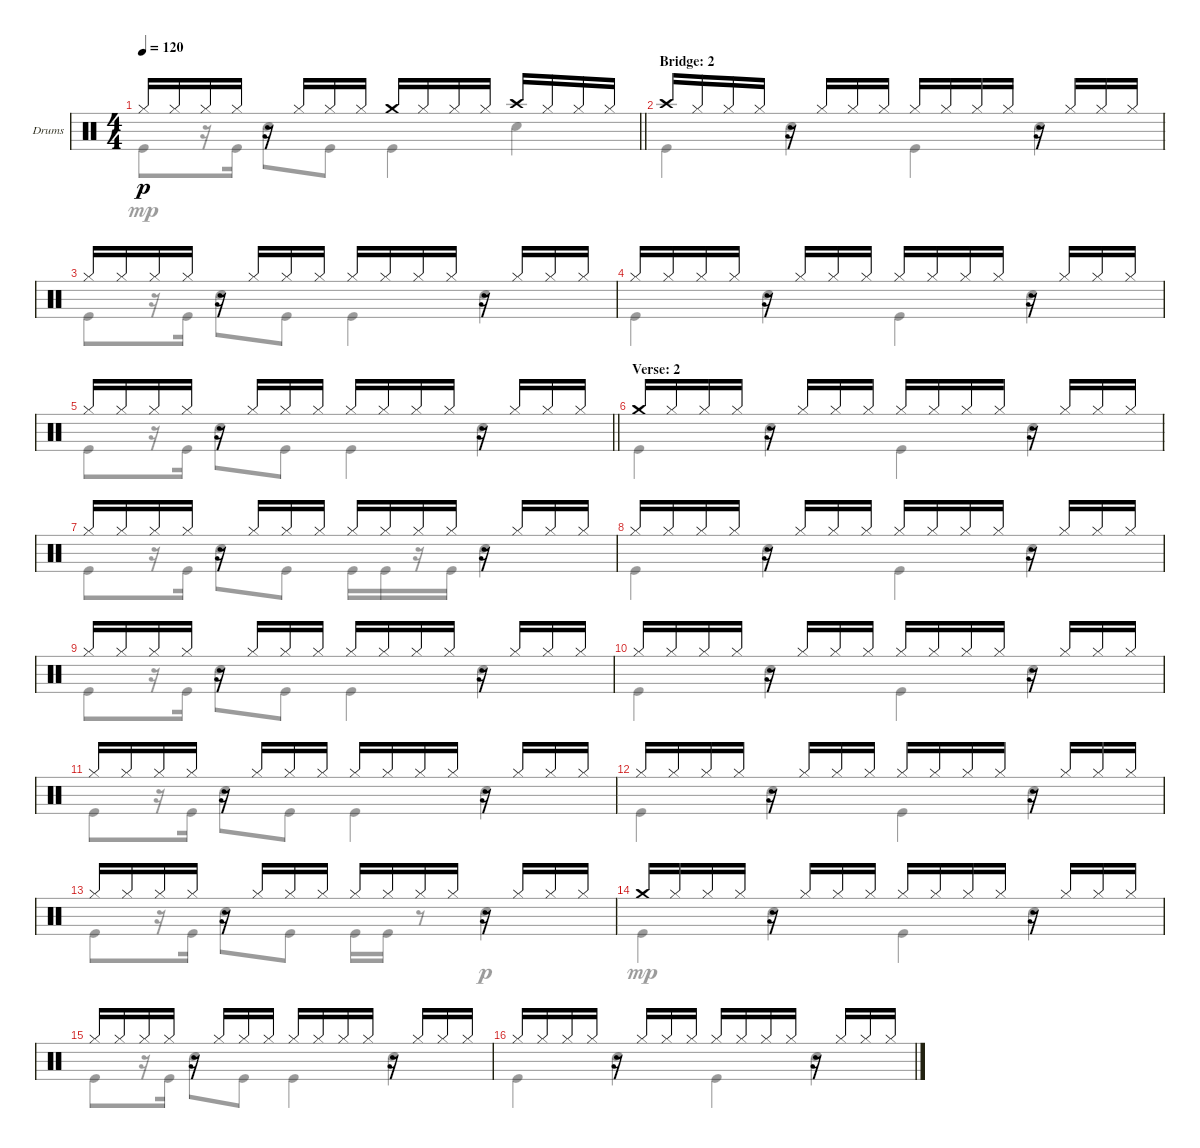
\bracketExtendMode groupsimilarinstruments
\firstSystemTrackNameOrientation horizontal
\otherSystemsTrackNameOrientation horizontal
\track ("Drumkit" "Drums") {instrument percussion}
\staff {score}
\articulation defaults
\voice
\ts (4 4)
\tempo 120
\clef neutral
\barLineRight lightlight
\ks c "Hi-Hat (closed)".16{dy p} "Hi-Hat (closed)".16 "Hi-Hat (closed)".16 "Hi-Hat (closed)".16
r.16 "Hi-Hat (closed)".16 "Hi-Hat (closed)".16 "Hi-Hat (closed)".16 "Crash medium (hit)".16 "Hi-Hat (closed)".16 "Hi-Hat (closed)".16 "Hi-Hat (closed)".16 "Crash high (hit)".16 "Hi-Hat (closed)".16 "Hi-Hat (closed)".16 "Hi-Hat (closed)".16 |
\section ("" "Bridge: 2")
"Crash high (hit)".16 "Hi-Hat (closed)".16 "Hi-Hat (closed)".16 "Hi-Hat (closed)".16 r.16 "Hi-Hat (closed)".16 "Hi-Hat (closed)".16 "Hi-Hat (closed)".16 "Hi-Hat (closed)".16 "Hi-Hat (closed)".16 "Hi-Hat (closed)".16 "Hi-Hat (closed)".16 r.16 "Hi-Hat (closed)".16 "Hi-Hat (closed)".16 "Hi-Hat (closed)".16 |
"Hi-Hat (closed)".16 "Hi-Hat (closed)".16 "Hi-Hat (closed)".16 "Hi-Hat (closed)".16 r.16 "Hi-Hat (closed)".16 "Hi-Hat (closed)".16 "Hi-Hat (closed)".16 "Hi-Hat (closed)".16 "Hi-Hat (closed)".16 "Hi-Hat (closed)".16 "Hi-Hat (closed)".16 r.16 "Hi-Hat (closed)".16 "Hi-Hat (closed)".16 "Hi-Hat (closed)".16 |
"Hi-Hat (closed)".16 "Hi-Hat (closed)".16 "Hi-Hat (closed)".16 "Hi-Hat (closed)".16 r.16 "Hi-Hat (closed)".16 "Hi-Hat (closed)".16 "Hi-Hat (closed)".16 "Hi-Hat (closed)".16 "Hi-Hat (closed)".16 "Hi-Hat (closed)".16 "Hi-Hat (closed)".16 r.16 "Hi-Hat (closed)".16 "Hi-Hat (closed)".16 "Hi-Hat (closed)".16 |
\barLineRight lightlight "Hi-Hat (closed)".16 "Hi-Hat (closed)".16 "Hi-Hat (closed)".16 "Hi-Hat (closed)".16
r.16 "Hi-Hat (closed)".16 "Hi-Hat (closed)".16 "Hi-Hat (closed)".16 "Hi-Hat (closed)".16 "Hi-Hat (closed)".16 "Hi-Hat (closed)".16 "Hi-Hat (closed)".16 r.16 "Hi-Hat (closed)".16 "Hi-Hat (closed)".16 "Hi-Hat (closed)".16 |
\section ("" "Verse: 2")
"Crash medium (hit)".16 "Hi-Hat (closed)".16 "Hi-Hat (closed)".16 "Hi-Hat (closed)".16 r.16 "Hi-Hat (closed)".16 "Hi-Hat (closed)".16 "Hi-Hat (closed)".16 "Hi-Hat (closed)".16 "Hi-Hat (closed)".16 "Hi-Hat (closed)".16 "Hi-Hat (closed)".16 r.16 "Hi-Hat (closed)".16 "Hi-Hat (closed)".16 "Hi-Hat (closed)".16 |
"Hi-Hat (closed)".16 "Hi-Hat (closed)".16 "Hi-Hat (closed)".16 "Hi-Hat (closed)".16 r.16 "Hi-Hat (closed)".16 "Hi-Hat (closed)".16 "Hi-Hat (closed)".16 "Hi-Hat (closed)".16 "Hi-Hat (closed)".16 "Hi-Hat (closed)".16 "Hi-Hat (closed)".16 r.16 "Hi-Hat (closed)".16 "Hi-Hat (closed)".16 "Hi-Hat (closed)".16 |
"Hi-Hat (closed)".16 "Hi-Hat (closed)".16 "Hi-Hat (closed)".16 "Hi-Hat (closed)".16 r.16 "Hi-Hat (closed)".16 "Hi-Hat (closed)".16 "Hi-Hat (closed)".16 "Hi-Hat (closed)".16 "Hi-Hat (closed)".16 "Hi-Hat (closed)".16 "Hi-Hat (closed)".16 r.16 "Hi-Hat (closed)".16 "Hi-Hat (closed)".16 "Hi-Hat (closed)".16 |
"Hi-Hat (closed)".16 "Hi-Hat (closed)".16 "Hi-Hat (closed)".16 "Hi-Hat (closed)".16 r.16 "Hi-Hat (closed)".16 "Hi-Hat (closed)".16 "Hi-Hat (closed)".16 "Hi-Hat (closed)".16 "Hi-Hat (closed)".16 "Hi-Hat (closed)".16 "Hi-Hat (closed)".16 r.16 "Hi-Hat (closed)".16 "Hi-Hat (closed)".16 "Hi-Hat (closed)".16 |
"Hi-Hat (closed)".16 "Hi-Hat (closed)".16 "Hi-Hat (closed)".16 "Hi-Hat (closed)".16 r.16 "Hi-Hat (closed)".16 "Hi-Hat (closed)".16 "Hi-Hat (closed)".16 "Hi-Hat (closed)".16 "Hi-Hat (closed)".16 "Hi-Hat (closed)".16 "Hi-Hat (closed)".16 r.16 "Hi-Hat (closed)".16 "Hi-Hat (closed)".16 "Hi-Hat (closed)".16 |
"Hi-Hat (closed)".16 "Hi-Hat (closed)".16 "Hi-Hat (closed)".16 "Hi-Hat (closed)".16 r.16 "Hi-Hat (closed)".16 "Hi-Hat (closed)".16 "Hi-Hat (closed)".16 "Hi-Hat (closed)".16 "Hi-Hat (closed)".16 "Hi-Hat (closed)".16 "Hi-Hat (closed)".16 r.16 "Hi-Hat (closed)".16 "Hi-Hat (closed)".16 "Hi-Hat (closed)".16 |
"Hi-Hat (closed)".16 "Hi-Hat (closed)".16 "Hi-Hat (closed)".16 "Hi-Hat (closed)".16 r.16 "Hi-Hat (closed)".16 "Hi-Hat (closed)".16 "Hi-Hat (closed)".16 "Hi-Hat (closed)".16 "Hi-Hat (closed)".16 "Hi-Hat (closed)".16 "Hi-Hat (closed)".16 r.16 "Hi-Hat (closed)".16 "Hi-Hat (closed)".16 "Hi-Hat (closed)".16 |
"Hi-Hat (closed)".16 "Hi-Hat (closed)".16 "Hi-Hat (closed)".16 "Hi-Hat (closed)".16 r.16 "Hi-Hat (closed)".16 "Hi-Hat (closed)".16 "Hi-Hat (closed)".16 "Hi-Hat (closed)".16 "Hi-Hat (closed)".16 "Hi-Hat (closed)".16 "Hi-Hat (closed)".16 r.16 "Hi-Hat (closed)".16 "Hi-Hat (closed)".16 "Hi-Hat (closed)".16 |
"Crash medium (hit)".16 "Hi-Hat (closed)".16 "Hi-Hat (closed)".16 "Hi-Hat (closed)".16 r.16 "Hi-Hat (closed)".16 "Hi-Hat (closed)".16 "Hi-Hat (closed)".16 "Hi-Hat (closed)".16 "Hi-Hat (closed)".16 "Hi-Hat (closed)".16 "Hi-Hat (closed)".16 r.16 "Hi-Hat (closed)".16 "Hi-Hat (closed)".16 "Hi-Hat (closed)".16 |
"Hi-Hat (closed)".16 "Hi-Hat (closed)".16 "Hi-Hat (closed)".16 "Hi-Hat (closed)".16 r.16 "Hi-Hat (closed)".16 "Hi-Hat (closed)".16 "Hi-Hat (closed)".16 "Hi-Hat (closed)".16 "Hi-Hat (closed)".16 "Hi-Hat (closed)".16 "Hi-Hat (closed)".16 r.16 "Hi-Hat (closed)".16 "Hi-Hat (closed)".16 "Hi-Hat (closed)".16 |
"Hi-Hat (closed)".16 "Hi-Hat (closed)".16 "Hi-Hat (closed)".16 "Hi-Hat (closed)".16 r.16 "Hi-Hat (closed)".16 "Hi-Hat (closed)".16 "Hi-Hat (closed)".16 "Hi-Hat (closed)".16 "Hi-Hat (closed)".16 "Hi-Hat (closed)".16 "Hi-Hat (closed)".16 r.16 "Hi-Hat (closed)".16 "Hi-Hat (closed)".16 "Hi-Hat (closed)".16
\voice
\clef neutral
\ottava regular
\simile none
\barLineRight lightlight
\ks c "Kick (hit)".8{dy mp}
r.16 "Kick (hit)".16 "Snare (hit) 2".8 "Kick (hit)".8 "Kick (hit)".4 "Snare (hit) 2".4 |
"Kick (hit)".4 "Snare (hit) 2".4 "Kick (hit)".4 "Snare (hit) 2".4 |
"Kick (hit)".8 r.16 "Kick (hit)".16 "Snare (hit) 2".8 "Kick (hit)".8 "Kick (hit)".4 "Snare (hit) 2".4 |
"Kick (hit)".4 "Snare (hit) 2".4 "Kick (hit)".4 "Snare (hit) 2".4 |
\barLineRight lightlight "Kick (hit)".8
r.16 "Kick (hit)".16 "Snare (hit) 2".8 "Kick (hit)".8 "Kick (hit)".4 "Snare (hit) 2".4 |
"Kick (hit)".4 "Snare (hit) 2".4 "Kick (hit)".4 "Snare (hit) 2".4 |
"Kick (hit)".8 r.16 "Kick (hit)".16 "Snare (hit) 2".8 "Kick (hit)".8 "Kick (hit)".16 "Kick (hit)".16 r.16 "Kick (hit)".16 "Snare (hit) 2".4 |
"Kick (hit)".4 "Snare (hit) 2".4 "Kick (hit)".4 "Snare (hit) 2".4 |
"Kick (hit)".8 r.16 "Kick (hit)".16 "Snare (hit) 2".8 "Kick (hit)".8 "Kick (hit)".4 "Snare (hit) 2".4 |
"Kick (hit)".4 "Snare (hit) 2".4 "Kick (hit)".4 "Snare (hit) 2".4 |
"Kick (hit)".8 r.16 "Kick (hit)".16 "Snare (hit) 2".8 "Kick (hit)".8 "Kick (hit)".4 "Snare (hit) 2".4 |
"Kick (hit)".4 "Snare (hit) 2".4 "Kick (hit)".4 "Snare (hit) 2".4 |
"Kick (hit)".8 r.16 "Kick (hit)".16 "Snare (hit) 2".8 "Kick (hit)".8 "Kick (hit)".16 "Kick (hit)".16 r.8 "Snare (hit) 2".4{dy p} |
"Kick (hit)".4{dy mp} "Snare (hit) 2".4 "Kick (hit)".4 "Snare (hit) 2".4 |
"Kick (hit)".8 r.16 "Kick (hit)".16 "Snare (hit) 2".8 "Kick (hit)".8 "Kick (hit)".4 "Snare (hit) 2".4 |
"Kick (hit)".4 "Snare (hit) 2".4 "Kick (hit)".4 "Snare (hit) 2".4
